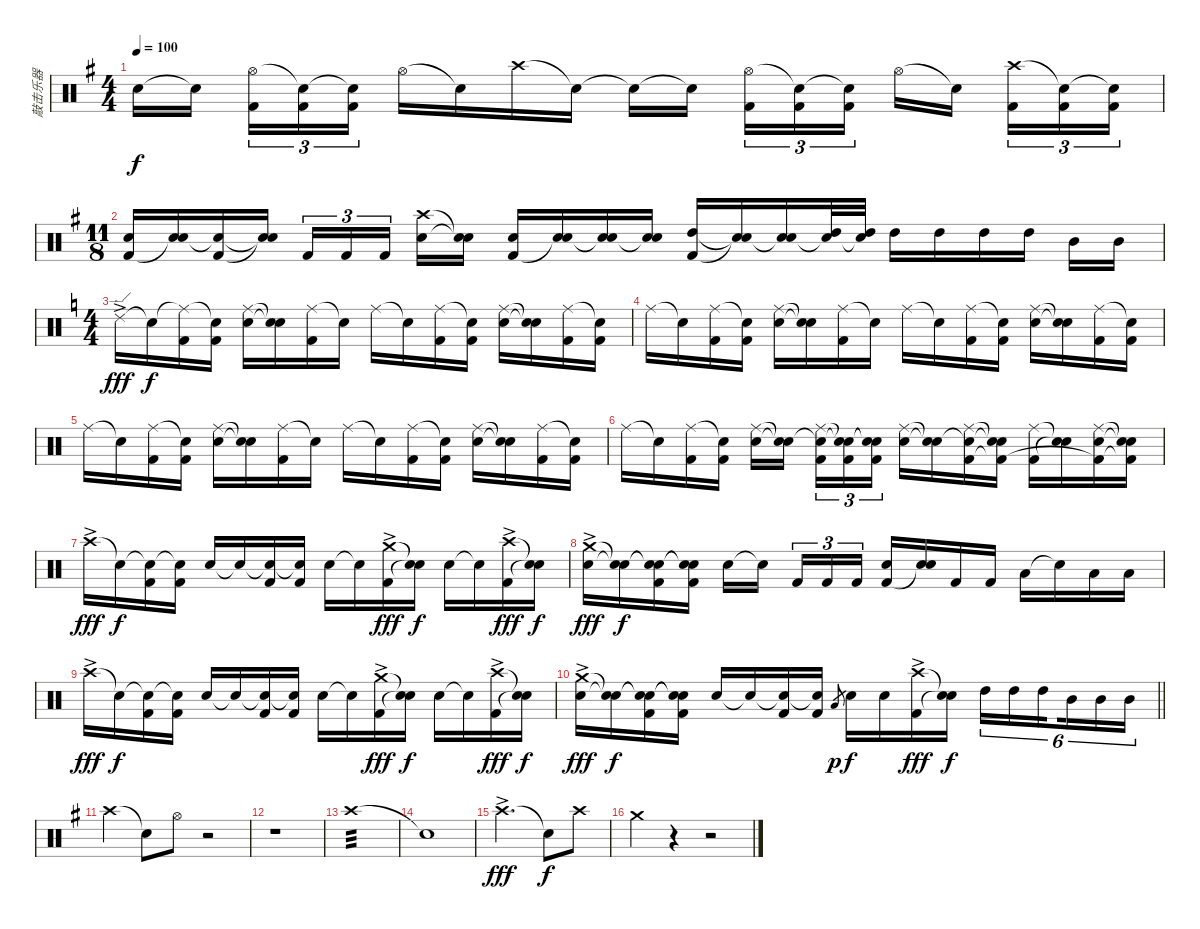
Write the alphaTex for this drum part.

\track ("敲击乐器" "敲击乐器") {instrument percussion}
\staff {score}
\articulation defaults
\ts (4 4)
\tempo 100
\clef neutral
\ks eminor "Snare (hit)"{t}.16{dy f} "Snare (hit)"{t}.16{beam splitsecondary}
("Hi-Hat (open)" "Kick (hit) 2").16{tu (3 2)} ("Snare (hit)"{t} "Kick (hit) 2").16{tu (3 2)} ("Snare (hit)"{t} "Kick (hit) 2").16{tu (3 2)} "Hi-Hat (open)".16 "Snare (hit)"{t}.16 "Crash high (hit)".16 "Snare (hit)"{t}.16 "Snare (hit)"{t}.16 "Snare (hit)"{t}.16{beam splitsecondary} ("Hi-Hat (open)" "Kick (hit) 2").16{tu (3 2)} ("Snare (hit)"{t} "Kick (hit) 2").16{tu (3 2)} ("Snare (hit)"{t} "Kick (hit) 2").16{tu (3 2)} "Hi-Hat (open)".16 "Snare (hit)"{t}.16{beam splitsecondary} ("Crash high (hit)" "Kick (hit) 2").16{tu (3 2)} ("Snare (hit)"{t} "Kick (hit) 2").16{tu (3 2)} ("Snare (hit)"{t} "Kick (hit) 2").16{tu (3 2)} |
\ts (11 8)
("Snare (hit) 2" "Kick (hit) 2").16 ("Snare (hit) 2" "Snare (hit)"{t}).16 ("Snare (hit)"{t} "Kick (hit) 2").16 ("Snare (hit)"{t} "Snare (hit)"{t}).16 "Kick (hit) 2".16{tu (3 2)} "Kick (hit) 2".16{tu (3 2)} "Kick (hit) 2".16{tu (3 2)} ("Crash high (hit)" "Snare (hit) 2").16 ("Snare (hit)"{t} "Snare (hit)"{t}).16 ("Snare (hit) 2" "Kick (hit) 2").16 ("Snare (hit) 2" "Snare (hit)"{t}).16 ("Snare (hit) 2" "Snare (hit)"{t}).16 ("Snare (hit) 2" "Snare (hit)"{t}).16 ("High Tom (hit)" "Kick (hit) 2").16 ("Snare (hit)"{t} "Snare (hit)"{t}).16 ("Snare (hit) 2" "Snare (hit)"{t}).16 ("High Tom (hit)" "Snare (hit)"{t}).32 ("High Tom (hit)" "Snare (hit)"{t}).32 "High Tom (hit)".16 "High Tom (hit)".16 "High Tom (hit)".16 "High Tom (hit)".16 "Mid Tom (hit)".16 "Mid Tom (hit)".16 |
\ts (4 4)
\ks c "Ride (edge) 2"{ac}.16{dy fff} "Snare (hit)"{t}.16{dy f}
("Ride (middle)"{t} "Kick (hit) 2").16 ("Snare (hit)"{t} "Kick (hit) 2").16 ("Ride (middle)" "Snare (hit) 2").16 ("Snare (hit)"{t} "Snare (hit)"{t}).16 ("Ride (middle)" "Kick (hit) 2").16 "Snare (hit)"{t}.16 "Ride (middle)".16 "Snare (hit)"{t}.16 ("Ride (middle)" "Kick (hit) 2").16 ("Snare (hit)"{t} "Kick (hit) 2").16 ("Ride (middle)" "Snare (hit) 2").16 ("Snare (hit)"{t} "Snare (hit)"{t}).16 ("Ride (middle)" "Kick (hit) 2").16 ("Snare (hit)"{t} "Kick (hit) 2").16 |
"Ride (middle)".16 "Snare (hit)"{t}.16 ("Ride (middle)" "Kick (hit) 2").16 ("Snare (hit)"{t} "Kick (hit) 2").16 ("Ride (middle)" "Snare (hit) 2").16 ("Snare (hit)"{t} "Snare (hit)"{t}).16 ("Ride (middle)" "Kick (hit) 2").16 "Snare (hit)"{t}.16 "Ride (middle)".16 "Snare (hit)"{t}.16 ("Ride (middle)" "Kick (hit) 2").16 ("Snare (hit)"{t} "Kick (hit) 2").16 ("Ride (middle)" "Snare (hit) 2").16 ("Snare (hit)"{t} "Snare (hit)"{t}).16 ("Ride (middle)" "Kick (hit) 2").16 ("Snare (hit)"{t} "Kick (hit) 2").16 |
"Ride (middle)".16 "Snare (hit)"{t}.16 ("Ride (middle)" "Kick (hit) 2").16 ("Snare (hit)"{t} "Kick (hit) 2").16 ("Ride (middle)" "Snare (hit) 2").16 ("Snare (hit)"{t} "Snare (hit)"{t}).16 ("Ride (middle)" "Kick (hit) 2").16 "Snare (hit)"{t}.16 "Ride (middle)".16 "Snare (hit)"{t}.16 ("Ride (middle)" "Kick (hit) 2").16 ("Snare (hit)"{t} "Kick (hit) 2").16 ("Ride (middle)" "Snare (hit) 2").16 ("Snare (hit)"{t} "Snare (hit)"{t}).16 ("Ride (middle)" "Kick (hit) 2").16 ("Snare (hit)"{t} "Kick (hit) 2").16 |
"Ride (middle)".16 "Snare (hit)"{t}.16 ("Ride (middle)" "Kick (hit) 2").16 ("Snare (hit)"{t} "Kick (hit) 2").16 ("Ride (middle)" "Snare (hit) 2").16 ("Snare (hit)"{t} "Snare (hit)"{t}).16{beam splitsecondary} ("Ride (middle)" "Snare (hit)"{t} "Kick (hit) 2").16{tu (3 2)} ("Snare (hit)"{t} "Snare (hit)"{t} "Kick (hit) 2").16{tu (3 2)} ("Snare (hit)"{t} "Snare (hit)"{t} "Kick (hit) 2").16{tu (3 2)} ("Ride (middle)" "Snare (hit) 2").16 ("Snare (hit)"{t} "Snare (hit)"{t}).16 ("Ride (middle)" "Snare (hit)"{t} "Kick (hit) 2").16 ("Snare (hit)"{t} "Snare (hit)"{t} "Kick (hit) 2"{t}).16 ("Ride (middle)" "Kick (hit) 2").16 ("Snare (hit)"{t} "Snare (hit)"{t}).16 ("Ride (middle)" "Snare (hit) 2" "Kick (hit) 2"{t}).16 ("Snare (hit)"{t} "Snare (hit)"{t} "Kick (hit) 2"{t}).16 |
"Crash high (hit)"{ac}.16{dy fff} "Snare (hit)"{t}.16{dy f} ("Snare (hit)"{t} "Kick (hit) 2").16 ("Snare (hit)"{t} "Kick (hit) 2").16 "Snare (hit) 2".16 "Snare (hit)"{t}.16 ("Snare (hit)"{t} "Kick (hit) 2").16 ("Snare (hit)"{t} "Kick (hit) 2").16 "Snare (hit) 2".16 "Snare (hit)"{t}.16 ("Crash medium (hit)"{ac} "Kick (hit) 2").16{dy fff} ("Snare (hit)"{t} "Snare (hit)"{t}).16{dy f} "Snare (hit) 2".16 "Snare (hit)"{t}.16 ("Crash high (hit)"{ac} "Kick (hit) 2").16{dy fff} ("Snare (hit)"{t} "Snare (hit)"{t}).16{dy f} |
("Crash medium (hit)"{ac} "Snare (hit) 2").16{dy fff} ("Snare (hit)"{t} "Snare (hit)"{t}).16{dy f} ("Snare (hit)"{t} "Snare (hit)"{t} "Kick (hit) 2").16 ("Snare (hit)"{t} "Snare (hit)"{t} "Kick (hit) 2").16 "Snare (hit) 2".16 "Snare (hit)"{t}.16{beam splitsecondary} "Kick (hit) 2".16{tu (3 2)} "Kick (hit) 2".16{tu (3 2)} "Kick (hit) 2".16{tu (3 2)} ("Snare (hit) 2" "Kick (hit) 2").16 ("Snare (hit) 2" "Snare (hit)"{t}).16 "Kick (hit) 2".16 "Kick (hit) 2".16 "Low Tom (hit)".16 "Snare (hit)"{t}.16 "Low Floor Tom (hit)".16 "Low Floor Tom (hit)".16 |
"Crash high (hit)"{ac}.16{dy fff} "Snare (hit)"{t}.16{dy f} ("Snare (hit)"{t} "Kick (hit) 2").16 ("Snare (hit)"{t} "Kick (hit) 2").16 "Snare (hit) 2".16 "Snare (hit)"{t}.16 ("Snare (hit)"{t} "Kick (hit) 2").16 ("Snare (hit)"{t} "Kick (hit) 2").16 "Snare (hit) 2".16 "Snare (hit)"{t}.16 ("Crash medium (hit)"{ac} "Kick (hit) 2").16{dy fff} ("Snare (hit)"{t} "Snare (hit)"{t}).16{dy f} "Snare (hit) 2".16 "Snare (hit)"{t}.16 ("Crash high (hit)"{ac} "Kick (hit) 2").16{dy fff} ("Snare (hit)"{t} "Snare (hit)"{t}).16{dy f} |
\barLineRight lightlight
("Crash medium (hit)"{ac} "Snare (hit) 2").16{dy fff} ("Snare (hit)"{t} "Snare (hit)"{t}).16{dy f} ("Snare (hit)"{t} "Snare (hit)"{t} "Kick (hit) 2").16 ("Snare (hit)"{t} "Snare (hit)"{t} "Kick (hit) 2").16 "Snare (hit) 2".16 "Snare (hit)"{t}.16 ("Snare (hit)"{t} "Kick (hit) 2").16 ("Snare (hit)"{t} "Kick (hit) 2").16 "Low Tom (hit)"{h}.8{gr dy p} "Snare (hit) 2".16{dy f} "Snare (hit) 2".16 ("Crash high (hit)"{ac} "Kick (hit) 2").16{dy fff} ("Snare (hit)"{t} "Snare (hit)"{t}).16{dy f} "High Tom (hit)".16{tu (6 4)} "High Tom (hit)".16{tu (6 4)} "High Tom (hit)".16{tu (6 4) beam splitsecondary} "Mid Tom (hit)".16{tu (6 4)} "Mid Tom (hit)".16{tu (6 4)} "Mid Tom (hit)".16{tu (6 4)} |
\ks eminor "Crash high (hit)".4 "Snare (hit)"{t}.8 "Hi-Hat (open)".8
r.2 |
r.1{volume 0} |
"Crash high (hit)".1{tp 3 volume 8} |
"Snare (hit)"{t}.1 |
"Crash high (hit)"{ac}.2{d dy fff volume 11} "Snare (hit)"{t}.8{dy f} "Crash high (hit)".8 |
"Crash medium (hit)".4 r.4 r.2
